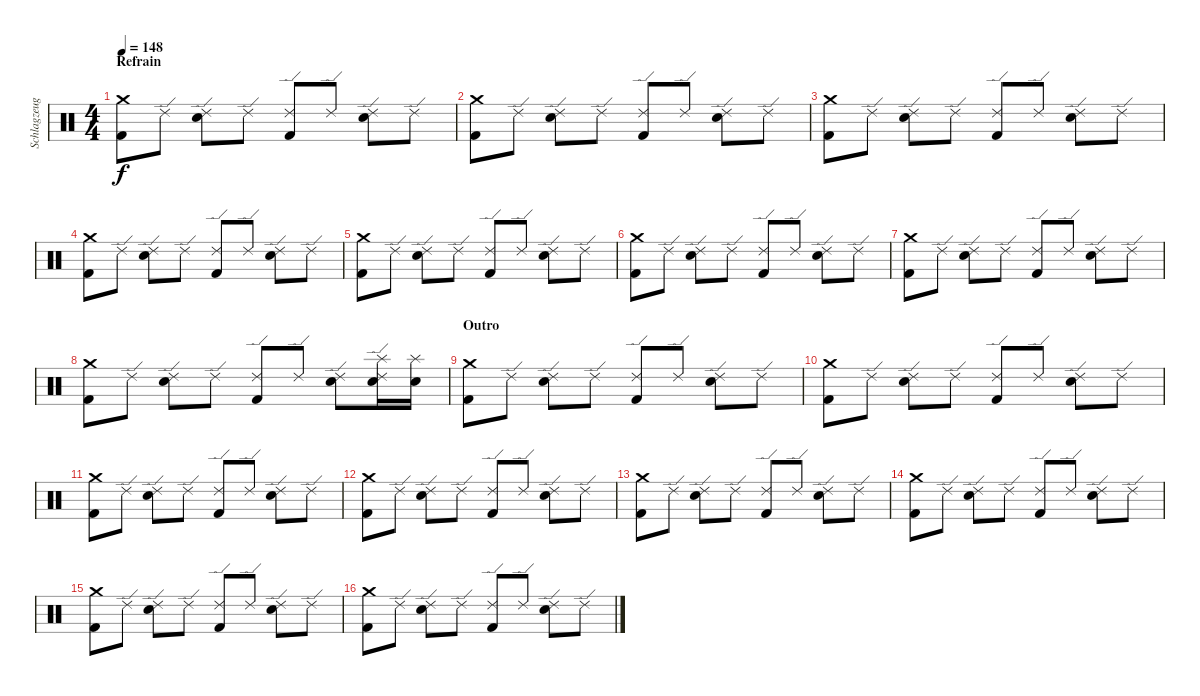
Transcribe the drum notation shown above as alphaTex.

\track ("Schlagzeug" "Schlagzeug") {instrument percussion}
\staff {score}
\articulation defaults
\ts (4 4)
\section ("" "Refrain")
\tempo 148
\clef neutral
\ks c
("Crash medium (hit)" "Kick (hit) 2").8{dy f} "Ride (edge) 2".8 ("Ride (edge) 2" "Snare (hit) 2").8 "Ride (edge) 2".8 ("Ride (edge) 2" "Kick (hit) 2").8 "Ride (edge) 2".8 ("Ride (edge) 2" "Snare (hit) 2").8 "Ride (edge) 2".8 |
("Crash medium (hit)" "Kick (hit) 2").8 "Ride (edge) 2".8 ("Ride (edge) 2" "Snare (hit) 2").8 "Ride (edge) 2".8 ("Ride (edge) 2" "Kick (hit) 2").8 "Ride (edge) 2".8 ("Ride (edge) 2" "Snare (hit) 2").8 "Ride (edge) 2".8 |
("Crash medium (hit)" "Kick (hit) 2").8 "Ride (edge) 2".8 ("Ride (edge) 2" "Snare (hit) 2").8 "Ride (edge) 2".8 ("Ride (edge) 2" "Kick (hit) 2").8 "Ride (edge) 2".8 ("Ride (edge) 2" "Snare (hit) 2").8 "Ride (edge) 2".8 |
("Crash medium (hit)" "Kick (hit) 2").8 "Ride (edge) 2".8 ("Ride (edge) 2" "Snare (hit) 2").8 "Ride (edge) 2".8 ("Ride (edge) 2" "Kick (hit) 2").8 "Ride (edge) 2".8 ("Ride (edge) 2" "Snare (hit) 2").8 "Ride (edge) 2".8 |
("Crash medium (hit)" "Kick (hit) 2").8 "Ride (edge) 2".8 ("Ride (edge) 2" "Snare (hit) 2").8 "Ride (edge) 2".8 ("Ride (edge) 2" "Kick (hit) 2").8 "Ride (edge) 2".8 ("Ride (edge) 2" "Snare (hit) 2").8 "Ride (edge) 2".8 |
("Crash medium (hit)" "Kick (hit) 2").8 "Ride (edge) 2".8 ("Ride (edge) 2" "Snare (hit) 2").8 "Ride (edge) 2".8 ("Ride (edge) 2" "Kick (hit) 2").8 "Ride (edge) 2".8 ("Ride (edge) 2" "Snare (hit) 2").8 "Ride (edge) 2".8 |
("Crash medium (hit)" "Kick (hit) 2").8 "Ride (edge) 2".8 ("Ride (edge) 2" "Snare (hit) 2").8 "Ride (edge) 2".8 ("Ride (edge) 2" "Kick (hit) 2").8 "Ride (edge) 2".8 ("Ride (edge) 2" "Snare (hit) 2").8 "Ride (edge) 2".8 |
("Crash medium (hit)" "Kick (hit) 2").8 "Ride (edge) 2".8 ("Ride (edge) 2" "Snare (hit) 2").8 "Ride (edge) 2".8 ("Ride (edge) 2" "Kick (hit) 2").8 "Ride (edge) 2".8 ("Ride (edge) 2" "Snare (hit) 2").8 ("Splash (hit)" "Snare (hit) 2" "Ride (edge) 2").16 ("Splash (hit)" "Snare (hit) 2").16 |
\section ("" "Outro")
("Crash medium (hit)" "Kick (hit) 2").8 "Ride (edge) 2".8 ("Ride (edge) 2" "Snare (hit) 2").8 "Ride (edge) 2".8 ("Ride (edge) 2" "Kick (hit) 2").8 "Ride (edge) 2".8 ("Ride (edge) 2" "Snare (hit) 2").8 "Ride (edge) 2".8 |
("Crash medium (hit)" "Kick (hit) 2").8 "Ride (edge) 2".8 ("Ride (edge) 2" "Snare (hit) 2").8 "Ride (edge) 2".8 ("Ride (edge) 2" "Kick (hit) 2").8 "Ride (edge) 2".8 ("Ride (edge) 2" "Snare (hit) 2").8 "Ride (edge) 2".8 |
("Crash medium (hit)" "Kick (hit) 2").8 "Ride (edge) 2".8 ("Ride (edge) 2" "Snare (hit) 2").8 "Ride (edge) 2".8 ("Ride (edge) 2" "Kick (hit) 2").8 "Ride (edge) 2".8 ("Ride (edge) 2" "Snare (hit) 2").8 "Ride (edge) 2".8 |
("Crash medium (hit)" "Kick (hit) 2").8 "Ride (edge) 2".8 ("Ride (edge) 2" "Snare (hit) 2").8 "Ride (edge) 2".8 ("Ride (edge) 2" "Kick (hit) 2").8 "Ride (edge) 2".8 ("Ride (edge) 2" "Snare (hit) 2").8 "Ride (edge) 2".8 |
("Crash medium (hit)" "Kick (hit) 2").8 "Ride (edge) 2".8 ("Ride (edge) 2" "Snare (hit) 2").8 "Ride (edge) 2".8 ("Ride (edge) 2" "Kick (hit) 2").8 "Ride (edge) 2".8 ("Ride (edge) 2" "Snare (hit) 2").8 "Ride (edge) 2".8 |
("Crash medium (hit)" "Kick (hit) 2").8 "Ride (edge) 2".8 ("Ride (edge) 2" "Snare (hit) 2").8 "Ride (edge) 2".8 ("Ride (edge) 2" "Kick (hit) 2").8 "Ride (edge) 2".8 ("Ride (edge) 2" "Snare (hit) 2").8 "Ride (edge) 2".8 |
("Crash medium (hit)" "Kick (hit) 2").8 "Ride (edge) 2".8 ("Ride (edge) 2" "Snare (hit) 2").8 "Ride (edge) 2".8 ("Ride (edge) 2" "Kick (hit) 2").8 "Ride (edge) 2".8 ("Ride (edge) 2" "Snare (hit) 2").8 "Ride (edge) 2".8 |
("Crash medium (hit)" "Kick (hit) 2").8 "Ride (edge) 2".8 ("Ride (edge) 2" "Snare (hit) 2").8 "Ride (edge) 2".8 ("Ride (edge) 2" "Kick (hit) 2").8 "Ride (edge) 2".8 ("Ride (edge) 2" "Snare (hit) 2").8 "Ride (edge) 2".8
